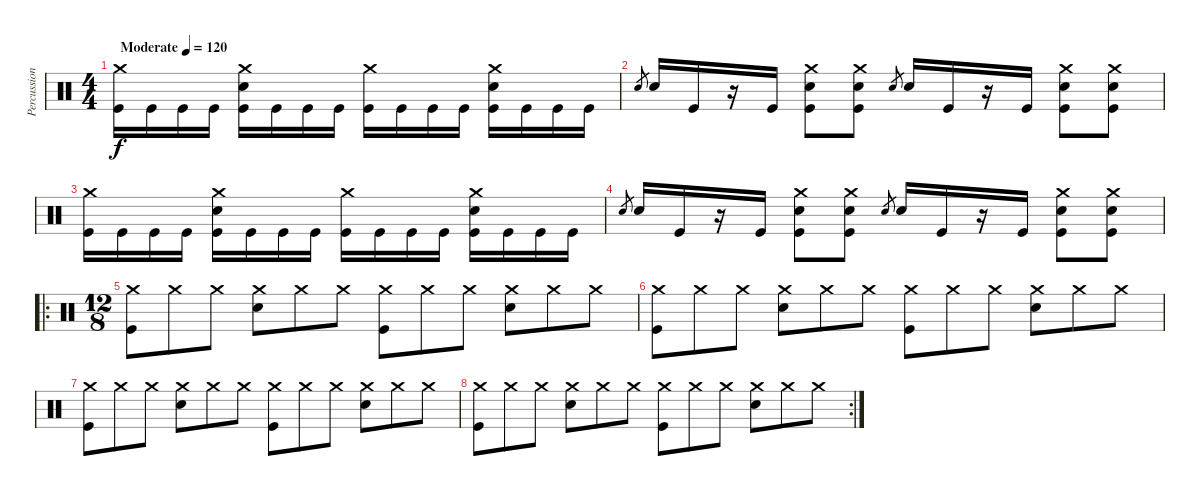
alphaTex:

\track ("Percussion" "Percussion") {instrument percussion}
\staff {score}
\articulation defaults
\ts (4 4)
\tempo (120 "Moderate")
\clef neutral
\ks c
("Crash medium (hit)" "Kick (hit)").16{dy f} "Kick (hit)".16 "Kick (hit)".16 "Kick (hit)".16 ("Crash medium (hit)" "Snare (hit) 2" "Kick (hit)").16 "Kick (hit)".16 "Kick (hit)".16 "Kick (hit)".16 ("Crash medium (hit)" "Kick (hit)").16 "Kick (hit)".16 "Kick (hit)".16 "Kick (hit)".16 ("Crash medium (hit)" "Snare (hit) 2" "Kick (hit)").16 "Kick (hit)".16 "Kick (hit)".16 "Kick (hit)".16 |
"Snare (hit) 2".8{gr} "Snare (hit) 2".16 "Kick (hit)".16 r.16 "Kick (hit)".16 ("Crash medium (hit)" "Snare (hit) 2" "Kick (hit)").8 ("Crash medium (hit)" "Snare (hit) 2" "Kick (hit)").8 "Snare (hit) 2".8{gr} "Snare (hit) 2".16 "Kick (hit)".16 r.16 "Kick (hit)".16 ("Crash medium (hit)" "Snare (hit) 2" "Kick (hit)").8 ("Crash medium (hit)" "Snare (hit) 2" "Kick (hit)").8 |
("Crash medium (hit)" "Kick (hit)").16 "Kick (hit)".16 "Kick (hit)".16 "Kick (hit)".16 ("Crash medium (hit)" "Snare (hit) 2" "Kick (hit)").16 "Kick (hit)".16 "Kick (hit)".16 "Kick (hit)".16 ("Crash medium (hit)" "Kick (hit)").16 "Kick (hit)".16 "Kick (hit)".16 "Kick (hit)".16 ("Crash medium (hit)" "Snare (hit) 2" "Kick (hit)").16 "Kick (hit)".16 "Kick (hit)".16 "Kick (hit)".16 |
"Snare (hit) 2".8{gr} "Snare (hit) 2".16 "Kick (hit)".16 r.16 "Kick (hit)".16 ("Crash medium (hit)" "Snare (hit) 2" "Kick (hit)").8 ("Crash medium (hit)" "Snare (hit) 2" "Kick (hit)").8 "Snare (hit) 2".8{gr} "Snare (hit) 2".16 "Kick (hit)".16 r.16 "Kick (hit)".16 ("Crash medium (hit)" "Snare (hit) 2" "Kick (hit)").8 ("Crash medium (hit)" "Snare (hit) 2" "Kick (hit)").8 |
\ro
\ts (12 8)
("Crash medium (hit)" "Kick (hit)").8 "Crash medium (hit)".8 "Crash medium (hit)".8 ("Crash medium (hit)" "Snare (hit) 2").8 "Crash medium (hit)".8 "Crash medium (hit)".8 ("Crash medium (hit)" "Kick (hit)").8 "Crash medium (hit)".8 "Crash medium (hit)".8 ("Crash medium (hit)" "Snare (hit) 2").8 "Crash medium (hit)".8 "Crash medium (hit)".8 |
("Crash medium (hit)" "Kick (hit)").8 "Crash medium (hit)".8 "Crash medium (hit)".8 ("Crash medium (hit)" "Snare (hit) 2").8 "Crash medium (hit)".8 "Crash medium (hit)".8 ("Crash medium (hit)" "Kick (hit)").8 "Crash medium (hit)".8 "Crash medium (hit)".8 ("Crash medium (hit)" "Snare (hit) 2").8 "Crash medium (hit)".8 "Crash medium (hit)".8 |
("Crash medium (hit)" "Kick (hit)").8 "Crash medium (hit)".8 "Crash medium (hit)".8 ("Crash medium (hit)" "Snare (hit) 2").8 "Crash medium (hit)".8 "Crash medium (hit)".8 ("Crash medium (hit)" "Kick (hit)").8 "Crash medium (hit)".8 "Crash medium (hit)".8 ("Crash medium (hit)" "Snare (hit) 2").8 "Crash medium (hit)".8 "Crash medium (hit)".8 |
\rc 2
("Crash medium (hit)" "Kick (hit)").8 "Crash medium (hit)".8 "Crash medium (hit)".8 ("Crash medium (hit)" "Snare (hit) 2").8 "Crash medium (hit)".8 "Crash medium (hit)".8 ("Crash medium (hit)" "Kick (hit)").8 "Crash medium (hit)".8 "Crash medium (hit)".8 ("Crash medium (hit)" "Snare (hit) 2").8 "Crash medium (hit)".8 "Crash medium (hit)".8
